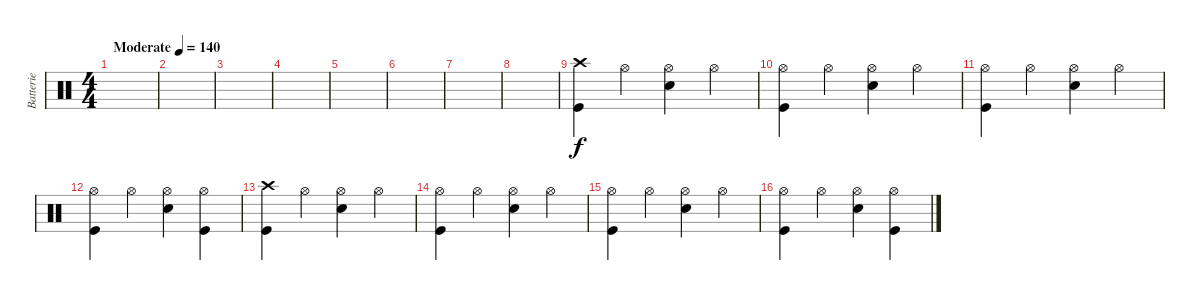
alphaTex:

\track ("Batterie" "Batterie") {instrument percussion}
\staff {score}
\articulation defaults
\ts (4 4)
\tempo (140 "Moderate")
\clef neutral
\ks c
|
|
|
|
|
|
|
|
("Crash high (hit)" "Kick (hit)").4 "Hi-Hat (open)".4 ("Hi-Hat (open)" "Electric Snare (hit)").4 "Hi-Hat (open)".4 |
("Hi-Hat (open)" "Kick (hit)").4 "Hi-Hat (open)".4 ("Hi-Hat (open)" "Electric Snare (hit)").4 "Hi-Hat (open)".4 |
("Hi-Hat (open)" "Kick (hit)").4 "Hi-Hat (open)".4 ("Hi-Hat (open)" "Electric Snare (hit)").4 "Hi-Hat (open)".4 |
("Hi-Hat (open)" "Kick (hit)").4 "Hi-Hat (open)".4 ("Hi-Hat (open)" "Electric Snare (hit)").4 ("Hi-Hat (open)" "Kick (hit)").4 |
("Crash high (hit)" "Kick (hit)").4 "Hi-Hat (open)".4 ("Hi-Hat (open)" "Electric Snare (hit)").4 "Hi-Hat (open)".4 |
("Hi-Hat (open)" "Kick (hit)").4 "Hi-Hat (open)".4 ("Hi-Hat (open)" "Electric Snare (hit)").4 "Hi-Hat (open)".4 |
("Hi-Hat (open)" "Kick (hit)").4 "Hi-Hat (open)".4 ("Hi-Hat (open)" "Electric Snare (hit)").4 "Hi-Hat (open)".4 |
("Hi-Hat (open)" "Kick (hit)").4 "Hi-Hat (open)".4 ("Hi-Hat (open)" "Electric Snare (hit)").4 ("Hi-Hat (open)" "Kick (hit)").4
